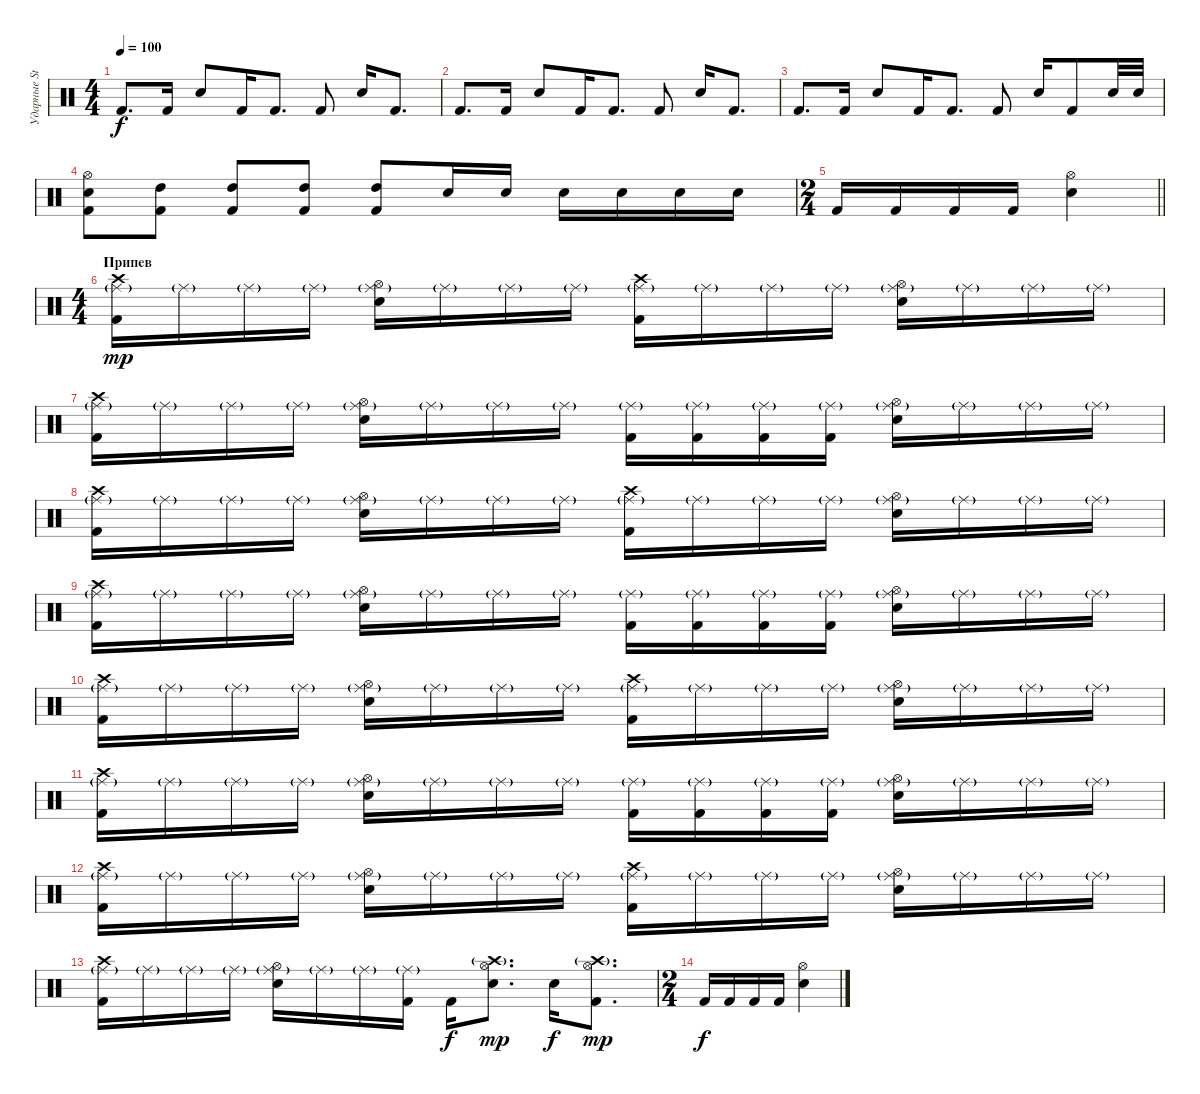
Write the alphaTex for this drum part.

\track ("Ударные Stewart" "Ударные St") {instrument percussion}
\staff {score}
\articulation defaults
\ts (4 4)
\tempo 100
\clef neutral
\ks c "Kick (hit) 2".8{d dy f} "Kick (hit) 2".16 "Electric Snare (hit)".8 "Kick (hit) 2".16 "Kick (hit) 2".8{d} "Kick (hit) 2".8 "Electric Snare (hit)".16 "Kick (hit) 2".8{d}
|
"Kick (hit) 2".8{d} "Kick (hit) 2".16 "Electric Snare (hit)".8 "Kick (hit) 2".16 "Kick (hit) 2".8{d} "Kick (hit) 2".8 "Electric Snare (hit)".16 "Kick (hit) 2".8{d} |
"Kick (hit) 2".8{d} "Kick (hit) 2".16 "Electric Snare (hit)".8 "Kick (hit) 2".16 "Kick (hit) 2".8{d} "Kick (hit) 2".8 "Electric Snare (hit)".16 "Kick (hit) 2".8 "Electric Snare (hit)".32 "Electric Snare (hit)".32 |
("Hi-Hat (open)" "Electric Snare (hit)" "Kick (hit) 2").8 ("High Tom (hit)" "Kick (hit) 2").8 ("High Tom (hit)" "Kick (hit) 2").8 ("High Tom (hit)" "Kick (hit) 2").8 ("High Tom (hit)" "Kick (hit) 2").8 "Electric Snare (hit)".16 "Electric Snare (hit)".16 "Electric Snare (hit)".16 "Electric Snare (hit)".16 "Electric Snare (hit)".16 "Electric Snare (hit)".16 |
\ts (2 4)
\barLineRight lightlight "Kick (hit) 2".16 "Kick (hit) 2".16 "Kick (hit) 2".16 "Kick (hit) 2".16
("Hi-Hat (open)" "Electric Snare (hit)").4 |
\ts (4 4)
\section ("" "Припев")
("Crash high (hit)" "Ride (middle)"{g} "Kick (hit) 2").16{dy mp} "Ride (middle)"{g}.16 "Ride (middle)"{g}.16 "Ride (middle)"{g}.16 ("Ride (middle)"{g} "Hi-Hat (open)" "Electric Snare (hit)").16 "Ride (middle)"{g}.16 "Ride (middle)"{g}.16 "Ride (middle)"{g}.16 ("Crash high (hit)" "Ride (middle)"{g} "Kick (hit) 2").16 "Ride (middle)"{g}.16 "Ride (middle)"{g}.16 "Ride (middle)"{g}.16 ("Ride (middle)"{g} "Hi-Hat (open)" "Electric Snare (hit)").16 "Ride (middle)"{g}.16 "Ride (middle)"{g}.16 "Ride (middle)"{g}.16 |
("Crash high (hit)" "Ride (middle)"{g} "Kick (hit) 2").16 "Ride (middle)"{g}.16 "Ride (middle)"{g}.16 "Ride (middle)"{g}.16 ("Ride (middle)"{g} "Hi-Hat (open)" "Electric Snare (hit)").16 "Ride (middle)"{g}.16 "Ride (middle)"{g}.16 "Ride (middle)"{g}.16 ("Ride (middle)"{g} "Kick (hit) 2").16 ("Ride (middle)"{g} "Kick (hit) 2").16 ("Ride (middle)"{g} "Kick (hit) 2").16 ("Ride (middle)"{g} "Kick (hit) 2").16 ("Ride (middle)"{g} "Hi-Hat (open)" "Electric Snare (hit)").16 "Ride (middle)"{g}.16 "Ride (middle)"{g}.16 "Ride (middle)"{g}.16 |
("Crash high (hit)" "Ride (middle)"{g} "Kick (hit) 2").16 "Ride (middle)"{g}.16 "Ride (middle)"{g}.16 "Ride (middle)"{g}.16 ("Ride (middle)"{g} "Hi-Hat (open)" "Electric Snare (hit)").16 "Ride (middle)"{g}.16 "Ride (middle)"{g}.16 "Ride (middle)"{g}.16 ("Crash high (hit)" "Ride (middle)"{g} "Kick (hit) 2").16 "Ride (middle)"{g}.16 "Ride (middle)"{g}.16 "Ride (middle)"{g}.16 ("Ride (middle)"{g} "Hi-Hat (open)" "Electric Snare (hit)").16 "Ride (middle)"{g}.16 "Ride (middle)"{g}.16 "Ride (middle)"{g}.16 |
("Crash high (hit)" "Ride (middle)"{g} "Kick (hit) 2").16 "Ride (middle)"{g}.16 "Ride (middle)"{g}.16 "Ride (middle)"{g}.16 ("Ride (middle)"{g} "Hi-Hat (open)" "Electric Snare (hit)").16 "Ride (middle)"{g}.16 "Ride (middle)"{g}.16 "Ride (middle)"{g}.16 ("Ride (middle)"{g} "Kick (hit) 2").16 ("Ride (middle)"{g} "Kick (hit) 2").16 ("Ride (middle)"{g} "Kick (hit) 2").16 ("Ride (middle)"{g} "Kick (hit) 2").16 ("Ride (middle)"{g} "Hi-Hat (open)" "Electric Snare (hit)").16 "Ride (middle)"{g}.16 "Ride (middle)"{g}.16 "Ride (middle)"{g}.16 |
("Crash high (hit)" "Ride (middle)"{g} "Kick (hit) 2").16 "Ride (middle)"{g}.16 "Ride (middle)"{g}.16 "Ride (middle)"{g}.16 ("Ride (middle)"{g} "Hi-Hat (open)" "Electric Snare (hit)").16 "Ride (middle)"{g}.16 "Ride (middle)"{g}.16 "Ride (middle)"{g}.16 ("Crash high (hit)" "Ride (middle)"{g} "Kick (hit) 2").16 "Ride (middle)"{g}.16 "Ride (middle)"{g}.16 "Ride (middle)"{g}.16 ("Ride (middle)"{g} "Hi-Hat (open)" "Electric Snare (hit)").16 "Ride (middle)"{g}.16 "Ride (middle)"{g}.16 "Ride (middle)"{g}.16 |
("Crash high (hit)" "Ride (middle)"{g} "Kick (hit) 2").16 "Ride (middle)"{g}.16 "Ride (middle)"{g}.16 "Ride (middle)"{g}.16 ("Ride (middle)"{g} "Hi-Hat (open)" "Electric Snare (hit)").16 "Ride (middle)"{g}.16 "Ride (middle)"{g}.16 "Ride (middle)"{g}.16 ("Ride (middle)"{g} "Kick (hit) 2").16 ("Ride (middle)"{g} "Kick (hit) 2").16 ("Ride (middle)"{g} "Kick (hit) 2").16 ("Ride (middle)"{g} "Kick (hit) 2").16 ("Ride (middle)"{g} "Hi-Hat (open)" "Electric Snare (hit)").16 "Ride (middle)"{g}.16 "Ride (middle)"{g}.16 "Ride (middle)"{g}.16 |
("Crash high (hit)" "Ride (middle)"{g} "Kick (hit) 2").16 "Ride (middle)"{g}.16 "Ride (middle)"{g}.16 "Ride (middle)"{g}.16 ("Ride (middle)"{g} "Hi-Hat (open)" "Electric Snare (hit)").16 "Ride (middle)"{g}.16 "Ride (middle)"{g}.16 "Ride (middle)"{g}.16 ("Crash high (hit)" "Ride (middle)"{g} "Kick (hit) 2").16 "Ride (middle)"{g}.16 "Ride (middle)"{g}.16 "Ride (middle)"{g}.16 ("Ride (middle)"{g} "Hi-Hat (open)" "Electric Snare (hit)").16 "Ride (middle)"{g}.16 "Ride (middle)"{g}.16 "Ride (middle)"{g}.16 |
("Crash high (hit)" "Ride (middle)"{g} "Kick (hit) 2").16 "Ride (middle)"{g}.16 "Ride (middle)"{g}.16 "Ride (middle)"{g}.16 ("Ride (middle)"{g} "Hi-Hat (open)" "Electric Snare (hit)").16 "Ride (middle)"{g}.16 "Ride (middle)"{g}.16 ("Ride (middle)"{g} "Kick (hit) 2").16 "Kick (hit) 2".16{dy f} ("Crash high (hit)"{g} "Hi-Hat (open)" "Electric Snare (hit)").8{d dy mp} "Electric Snare (hit)".16{dy f} ("Crash high (hit)"{g} "Hi-Hat (open)" "Kick (hit) 2").8{d dy mp} |
\ts (2 4)
"Kick (hit) 2".16{dy f} "Kick (hit) 2".16 "Kick (hit) 2".16 "Kick (hit) 2".16 ("Hi-Hat (open)" "Electric Snare (hit)").4
